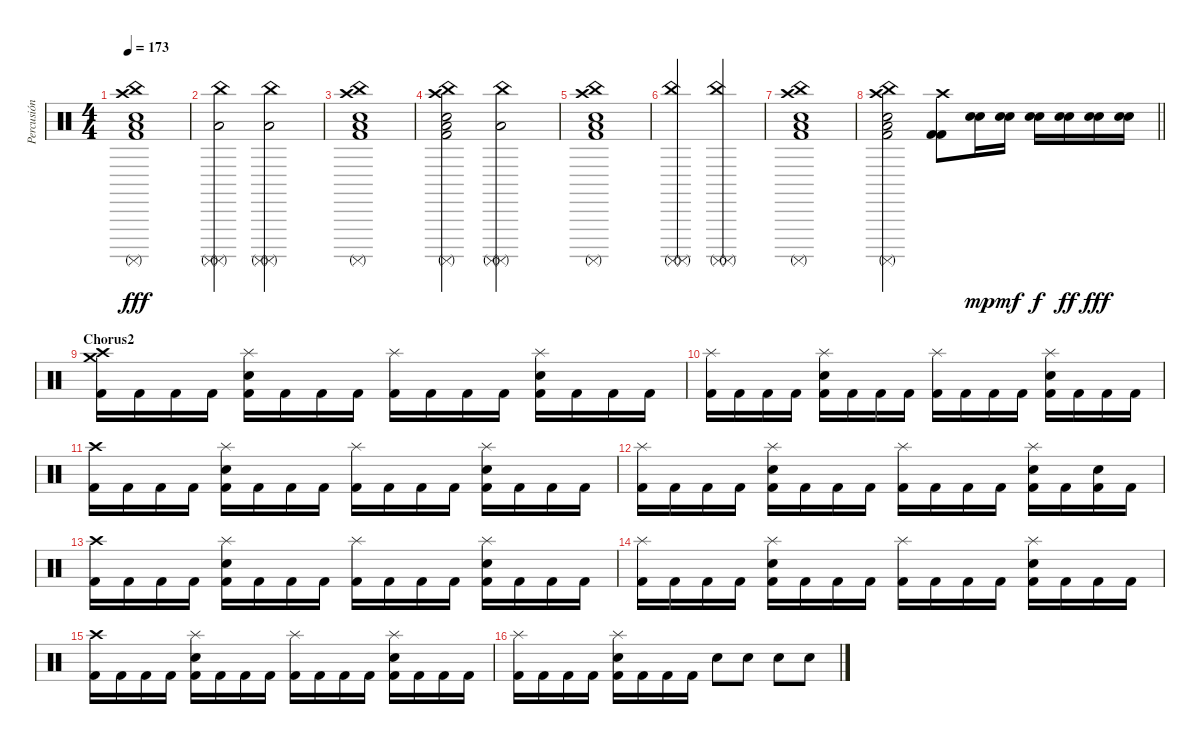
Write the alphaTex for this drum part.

\track ("Percusión" "Percusión") {instrument percussion}
\staff {score}
\articulation defaults
\ts (4 4)
\tempo 173
\clef neutral
\ks c
("Crash high (hit)" "China (hit)" "Surdo (mute)" "Low Floor Tom (hit)" "Snare (hit) 2" "Kick (hit) 2").1{dy fff} |
("China (hit)" "Surdo (mute)" "Surdo (mute)" "Low Floor Tom (hit)").2 ("China (hit)" "Surdo (mute)" "Surdo (mute)" "Low Floor Tom (hit)").2 |
("Crash high (hit)" "China (hit)" "Surdo (mute)" "Low Floor Tom (hit)" "Snare (hit) 2" "Kick (hit) 2").1 |
("Crash high (hit)" "China (hit)" "Surdo (mute)" "Low Floor Tom (hit)" "Snare (hit) 2" "Kick (hit) 2").2 ("China (hit)" "Surdo (mute)" "Surdo (mute)" "Low Floor Tom (hit)").2 |
("Crash high (hit)" "China (hit)" "Surdo (mute)" "Low Floor Tom (hit)" "Snare (hit) 2" "Kick (hit) 2").1 |
("China (hit)" "Surdo (mute)" "Surdo (mute)").2 ("China (hit)" "Surdo (mute)" "Surdo (mute)").2 |
("Crash high (hit)" "China (hit)" "Surdo (mute)" "Low Floor Tom (hit)" "Snare (hit) 2" "Kick (hit) 2").1 |
\barLineRight lightlight
("Crash high (hit)" "China (hit)" "Surdo (mute)" "Low Floor Tom (hit)" "Snare (hit) 2" "Kick (hit) 2").2 ("Crash high (hit)" "Kick (hit) 2" "Kick (hit) 2").8 ("Snare (hit) 2" "Electric Snare (hit)").16{dy mp} ("Snare (hit) 2" "Electric Snare (hit)").16{dy mf} ("Snare (hit) 2" "Electric Snare (hit)").16{dy f} ("Snare (hit) 2" "Electric Snare (hit)").16{dy ff} ("Snare (hit) 2" "Electric Snare (hit)").16{dy fff} ("Snare (hit) 2" "Electric Snare (hit)").16 |
\section ("" "Chorus2")
("Crash high (hit)" "Crash medium (hit)" "Kick (hit) 2").16 "Kick (hit) 2".16 "Kick (hit) 2".16 "Kick (hit) 2".16 ("Splash (hit)" "Electric Snare (hit)" "Kick (hit) 2").16 "Kick (hit) 2".16 "Kick (hit) 2".16 "Kick (hit) 2".16 ("Splash (hit)" "Kick (hit) 2").16 "Kick (hit) 2".16 "Kick (hit) 2".16 "Kick (hit) 2".16 ("Splash (hit)" "Electric Snare (hit)" "Kick (hit) 2").16 "Kick (hit) 2".16 "Kick (hit) 2".16 "Kick (hit) 2".16 |
("Splash (hit)" "Kick (hit) 2").16 "Kick (hit) 2".16 "Kick (hit) 2".16 "Kick (hit) 2".16 ("Splash (hit)" "Electric Snare (hit)" "Kick (hit) 2").16 "Kick (hit) 2".16 "Kick (hit) 2".16 "Kick (hit) 2".16 ("Splash (hit)" "Kick (hit) 2").16 "Kick (hit) 2".16 "Kick (hit) 2".16 "Kick (hit) 2".16 ("Splash (hit)" "Electric Snare (hit)" "Kick (hit) 2").16 "Kick (hit) 2".16 "Kick (hit) 2".16 "Kick (hit) 2".16 |
("Crash high (hit)" "Kick (hit) 2").16 "Kick (hit) 2".16 "Kick (hit) 2".16 "Kick (hit) 2".16 ("Splash (hit)" "Electric Snare (hit)" "Kick (hit) 2").16 "Kick (hit) 2".16 "Kick (hit) 2".16 "Kick (hit) 2".16 ("Splash (hit)" "Kick (hit) 2").16 "Kick (hit) 2".16 "Kick (hit) 2".16 "Kick (hit) 2".16 ("Splash (hit)" "Electric Snare (hit)" "Kick (hit) 2").16 "Kick (hit) 2".16 "Kick (hit) 2".16 "Kick (hit) 2".16 |
("Splash (hit)" "Kick (hit) 2").16 "Kick (hit) 2".16 "Kick (hit) 2".16 "Kick (hit) 2".16 ("Splash (hit)" "Electric Snare (hit)" "Kick (hit) 2").16 "Kick (hit) 2".16 "Kick (hit) 2".16 "Kick (hit) 2".16 ("Splash (hit)" "Kick (hit) 2").16 "Kick (hit) 2".16 "Kick (hit) 2".16 "Kick (hit) 2".16 ("Splash (hit)" "Electric Snare (hit)" "Kick (hit) 2").16 "Kick (hit) 2".16 ("Electric Snare (hit)" "Kick (hit) 2").16 "Kick (hit) 2".16 |
("Crash high (hit)" "Kick (hit) 2").16 "Kick (hit) 2".16 "Kick (hit) 2".16 "Kick (hit) 2".16 ("Splash (hit)" "Electric Snare (hit)" "Kick (hit) 2").16 "Kick (hit) 2".16 "Kick (hit) 2".16 "Kick (hit) 2".16 ("Splash (hit)" "Kick (hit) 2").16 "Kick (hit) 2".16 "Kick (hit) 2".16 "Kick (hit) 2".16 ("Splash (hit)" "Electric Snare (hit)" "Kick (hit) 2").16 "Kick (hit) 2".16 "Kick (hit) 2".16 "Kick (hit) 2".16 |
("Splash (hit)" "Kick (hit) 2").16 "Kick (hit) 2".16 "Kick (hit) 2".16 "Kick (hit) 2".16 ("Splash (hit)" "Electric Snare (hit)" "Kick (hit) 2").16 "Kick (hit) 2".16 "Kick (hit) 2".16 "Kick (hit) 2".16 ("Splash (hit)" "Kick (hit) 2").16 "Kick (hit) 2".16 "Kick (hit) 2".16 "Kick (hit) 2".16 ("Splash (hit)" "Electric Snare (hit)" "Kick (hit) 2").16 "Kick (hit) 2".16 "Kick (hit) 2".16 "Kick (hit) 2".16 |
("Crash high (hit)" "Kick (hit) 2").16 "Kick (hit) 2".16 "Kick (hit) 2".16 "Kick (hit) 2".16 ("Splash (hit)" "Electric Snare (hit)" "Kick (hit) 2").16 "Kick (hit) 2".16 "Kick (hit) 2".16 "Kick (hit) 2".16 ("Splash (hit)" "Kick (hit) 2").16 "Kick (hit) 2".16 "Kick (hit) 2".16 "Kick (hit) 2".16 ("Splash (hit)" "Electric Snare (hit)" "Kick (hit) 2").16 "Kick (hit) 2".16 "Kick (hit) 2".16 "Kick (hit) 2".16 |
("Splash (hit)" "Kick (hit) 2").16 "Kick (hit) 2".16 "Kick (hit) 2".16 "Kick (hit) 2".16 ("Splash (hit)" "Electric Snare (hit)" "Kick (hit) 2").16 "Kick (hit) 2".16 "Kick (hit) 2".16 "Kick (hit) 2".16 "Electric Snare (hit)".8 "Electric Snare (hit)".8 "Electric Snare (hit)".8 "Electric Snare (hit)".8
